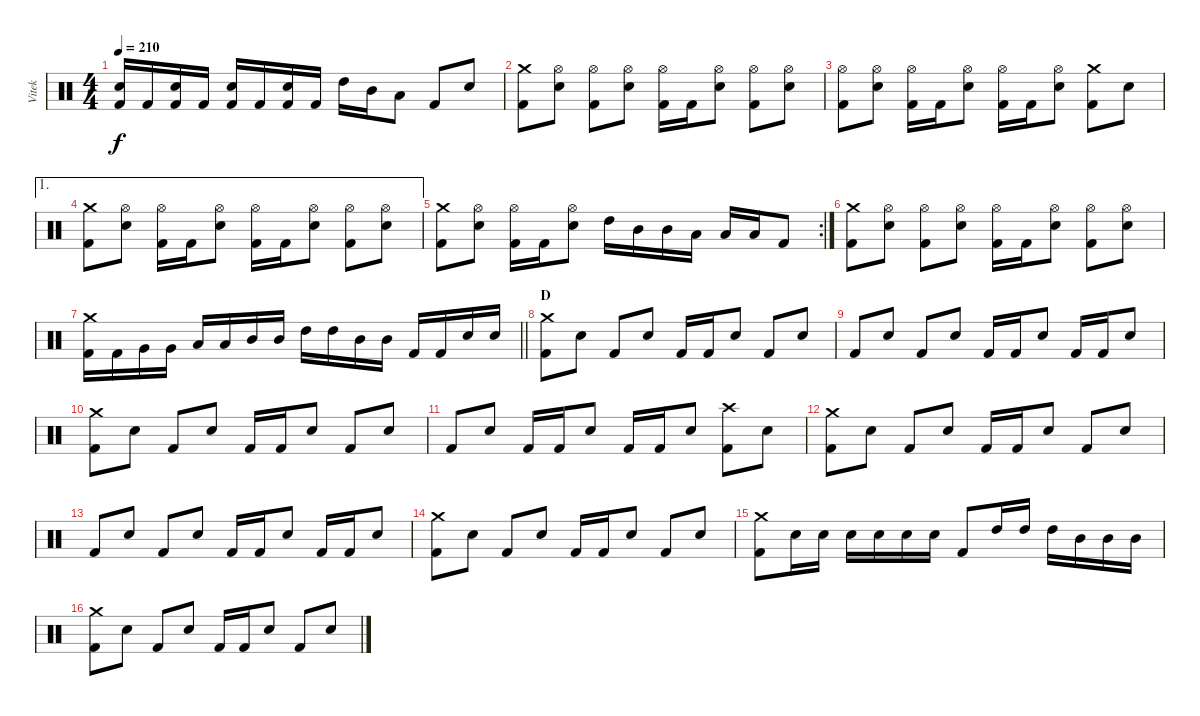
\track ("Vitek" "Vitek") {instrument percussion}
\staff {score}
\articulation defaults
\ts (4 4)
\tempo 210
\clef neutral
\ks c
("Electric Snare (hit)" "Kick (hit) 2").16{dy f} "Kick (hit) 2".16 ("Electric Snare (hit)" "Kick (hit) 2").16 "Kick (hit) 2".16 ("Electric Snare (hit)" "Kick (hit) 2").16 "Kick (hit) 2".16 ("Electric Snare (hit)" "Kick (hit) 2").16 "Kick (hit) 2".16 "High Tom (hit)".16 "Mid Tom (hit)".16 "Low Tom (hit)".8 "Kick (hit) 2".8 "Electric Snare (hit)".8 |
("Crash medium (hit)" "Kick (hit) 2").8 ("Hi-Hat (open)" "Electric Snare (hit)").8 ("Hi-Hat (open)" "Kick (hit) 2").8 ("Hi-Hat (open)" "Electric Snare (hit)").8 ("Hi-Hat (open)" "Kick (hit) 2").16 "Kick (hit) 2".16 ("Hi-Hat (open)" "Electric Snare (hit)").8 ("Hi-Hat (open)" "Kick (hit) 2").8 ("Hi-Hat (open)" "Electric Snare (hit)").8 |
("Hi-Hat (open)" "Kick (hit) 2").8 ("Hi-Hat (open)" "Electric Snare (hit)").8 ("Hi-Hat (open)" "Kick (hit) 2").16 "Kick (hit) 2".16 ("Hi-Hat (open)" "Electric Snare (hit)").8 ("Hi-Hat (open)" "Kick (hit) 2").16 "Kick (hit) 2".16 ("Hi-Hat (open)" "Electric Snare (hit)").8 ("Crash medium (hit)" "Kick (hit) 2").8 "Electric Snare (hit)".8 |
\ae 1
("Crash medium (hit)" "Kick (hit) 2").8 ("Hi-Hat (open)" "Electric Snare (hit)").8 ("Hi-Hat (open)" "Kick (hit) 2").16 "Kick (hit) 2".16 ("Hi-Hat (open)" "Electric Snare (hit)").8 ("Hi-Hat (open)" "Kick (hit) 2").16 "Kick (hit) 2".16 ("Hi-Hat (open)" "Electric Snare (hit)").8 ("Hi-Hat (open)" "Kick (hit) 2").8 ("Hi-Hat (open)" "Electric Snare (hit)").8 |
\rc 2
("Crash medium (hit)" "Kick (hit) 2").8 ("Hi-Hat (open)" "Electric Snare (hit)").8 ("Hi-Hat (open)" "Kick (hit) 2").16 "Kick (hit) 2".16 ("Hi-Hat (open)" "Electric Snare (hit)").8 "High Tom (hit)".16 "Mid Tom (hit)".16 "Mid Tom (hit)".16 "Low Tom (hit)".16 "Low Tom (hit)".16 "Low Tom (hit)".16 "Kick (hit) 2".8 |
("Crash medium (hit)" "Kick (hit) 2").8 ("Hi-Hat (open)" "Electric Snare (hit)").8 ("Hi-Hat (open)" "Kick (hit) 2").8 ("Hi-Hat (open)" "Electric Snare (hit)").8 ("Hi-Hat (open)" "Kick (hit) 2").16 "Kick (hit) 2".16 ("Hi-Hat (open)" "Electric Snare (hit)").8 ("Hi-Hat (open)" "Kick (hit) 2").8 ("Hi-Hat (open)" "Electric Snare (hit)").8 |
\barLineRight lightlight
("Crash medium (hit)" "Kick (hit) 2").16 "Kick (hit) 2".16 "Very Low Tom (hit)".16 "Very Low Tom (hit)".16 "Low Tom (hit)".16 "Low Tom (hit)".16 "Mid Tom (hit)".16 "Mid Tom (hit)".16 "High Tom (hit)".16 "High Tom (hit)".16 "Mid Tom (hit)".16 "Mid Tom (hit)".16 "Kick (hit) 2".16 "Kick (hit) 2".16 "Electric Snare (hit)".16 "Electric Snare (hit)".16 |
\section ("" "D")
("Crash medium (hit)" "Kick (hit) 2").8 "Electric Snare (hit)".8 "Kick (hit) 2".8 "Electric Snare (hit)".8 "Kick (hit) 2".16 "Kick (hit) 2".16 "Electric Snare (hit)".8 "Kick (hit) 2".8 "Electric Snare (hit)".8 |
"Kick (hit) 2".8 "Electric Snare (hit)".8 "Kick (hit) 2".8 "Electric Snare (hit)".8 "Kick (hit) 2".16 "Kick (hit) 2".16 "Electric Snare (hit)".8 "Kick (hit) 2".16 "Kick (hit) 2".16 "Electric Snare (hit)".8 |
("Crash medium (hit)" "Kick (hit) 2").8 "Electric Snare (hit)".8 "Kick (hit) 2".8 "Electric Snare (hit)".8 "Kick (hit) 2".16 "Kick (hit) 2".16 "Electric Snare (hit)".8 "Kick (hit) 2".8 "Electric Snare (hit)".8 |
"Kick (hit) 2".8 "Electric Snare (hit)".8 "Kick (hit) 2".16 "Kick (hit) 2".16 "Electric Snare (hit)".8 "Kick (hit) 2".16 "Kick (hit) 2".16 "Electric Snare (hit)".8 ("Crash high (hit)" "Kick (hit) 2").8 "Electric Snare (hit)".8 |
("Crash medium (hit)" "Kick (hit) 2").8 "Electric Snare (hit)".8 "Kick (hit) 2".8 "Electric Snare (hit)".8 "Kick (hit) 2".16 "Kick (hit) 2".16 "Electric Snare (hit)".8 "Kick (hit) 2".8 "Electric Snare (hit)".8 |
"Kick (hit) 2".8 "Electric Snare (hit)".8 "Kick (hit) 2".8 "Electric Snare (hit)".8 "Kick (hit) 2".16 "Kick (hit) 2".16 "Electric Snare (hit)".8 "Kick (hit) 2".16 "Kick (hit) 2".16 "Electric Snare (hit)".8 |
("Crash medium (hit)" "Kick (hit) 2").8 "Electric Snare (hit)".8 "Kick (hit) 2".8 "Electric Snare (hit)".8 "Kick (hit) 2".16 "Kick (hit) 2".16 "Electric Snare (hit)".8 "Kick (hit) 2".8 "Electric Snare (hit)".8 |
("Crash medium (hit)" "Kick (hit) 2").8 "Electric Snare (hit)".16 "Electric Snare (hit)".16 "Electric Snare (hit)".16 "Electric Snare (hit)".16 "Electric Snare (hit)".16 "Electric Snare (hit)".16 "Kick (hit) 2".8 "High Tom (hit)".16 "High Tom (hit)".16 "High Tom (hit)".16 "Mid Tom (hit)".16 "Mid Tom (hit)".16 "Mid Tom (hit)".16 |
("Crash medium (hit)" "Kick (hit) 2").8 "Electric Snare (hit)".8 "Kick (hit) 2".8 "Electric Snare (hit)".8 "Kick (hit) 2".16 "Kick (hit) 2".16 "Electric Snare (hit)".8 "Kick (hit) 2".8 "Electric Snare (hit)".8
